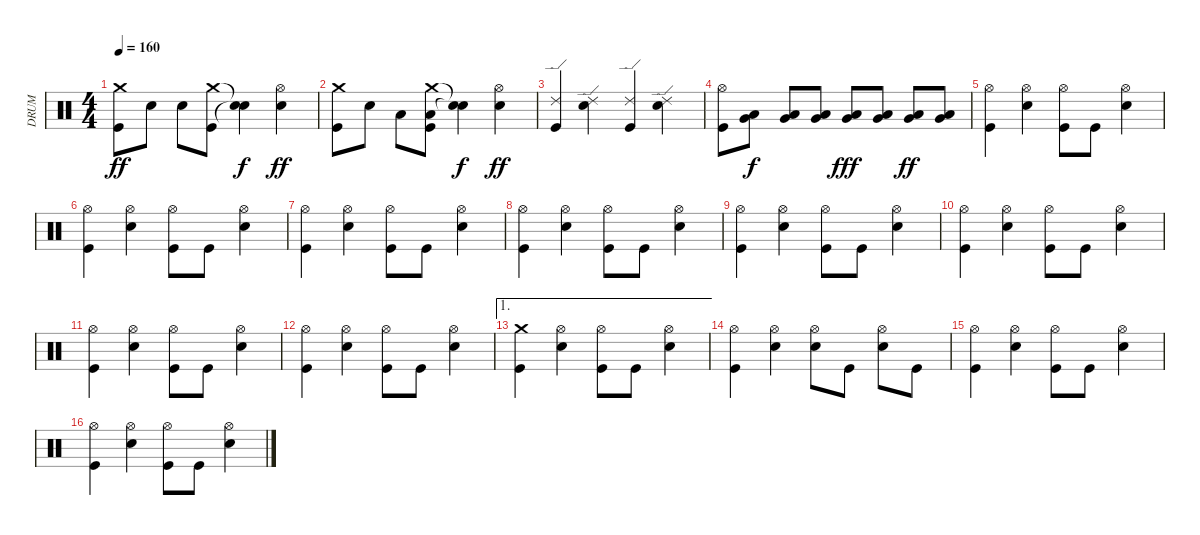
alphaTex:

\track ("DRUM" "DRUM") {instrument percussion}
\staff {score}
\articulation defaults
\ts (4 4)
\tempo 160
\clef neutral
\ks c
("Crash medium (hit)" "Kick (hit)").8{dy ff} "Snare (hit) 2".8 "Snare (hit) 2".8 ("Crash medium (hit)" "Kick (hit)").8 ("Snare (hit)"{t} "Snare (hit)"{t}).4{dy f} ("Hi-Hat (open)" "Snare (hit) 2").4{dy ff} |
("Crash medium (hit)" "Kick (hit)").8 "Snare (hit) 2".8 "Low Tom (hit)".8 ("Crash medium (hit)" "Low Tom (hit)" "Kick (hit)").8 ("Snare (hit)"{t} "Snare (hit)"{t}).4{dy f} ("Hi-Hat (open)" "Snare (hit) 2").4{dy ff} |
("Ride (edge) 2" "Kick (hit)").4 ("Ride (edge) 2" "Snare (hit) 2").4 ("Ride (edge) 2" "Kick (hit)").4 ("Ride (edge) 2" "Snare (hit) 2").4 |
("Hi-Hat (open)" "Kick (hit)").8 ("Very Low Tom (hit)" "Low Tom (hit)").8{dy f} ("Very Low Tom (hit)" "Low Tom (hit)").8 ("Very Low Tom (hit)" "Low Tom (hit)").8 ("Very Low Tom (hit)" "Low Tom (hit)").8{dy fff} ("Very Low Tom (hit)" "Low Tom (hit)").8 ("Very Low Tom (hit)" "Low Tom (hit)").8{dy ff} ("Very Low Tom (hit)" "Low Tom (hit)").8 |
("Hi-Hat (open)" "Kick (hit)").4 ("Hi-Hat (open)" "Snare (hit) 2").4 ("Hi-Hat (open)" "Kick (hit)").8 "Kick (hit)".8 ("Hi-Hat (open)" "Snare (hit) 2").4 |
("Hi-Hat (open)" "Kick (hit)").4 ("Hi-Hat (open)" "Snare (hit) 2").4 ("Hi-Hat (open)" "Kick (hit)").8 "Kick (hit)".8 ("Hi-Hat (open)" "Snare (hit) 2").4 |
("Hi-Hat (open)" "Kick (hit)").4 ("Hi-Hat (open)" "Snare (hit) 2").4 ("Hi-Hat (open)" "Kick (hit)").8 "Kick (hit)".8 ("Hi-Hat (open)" "Snare (hit) 2").4 |
("Hi-Hat (open)" "Kick (hit)").4 ("Hi-Hat (open)" "Snare (hit) 2").4 ("Hi-Hat (open)" "Kick (hit)").8 "Kick (hit)".8 ("Hi-Hat (open)" "Snare (hit) 2").4 |
("Hi-Hat (open)" "Kick (hit)").4 ("Hi-Hat (open)" "Snare (hit) 2").4 ("Hi-Hat (open)" "Kick (hit)").8 "Kick (hit)".8 ("Hi-Hat (open)" "Snare (hit) 2").4 |
("Hi-Hat (open)" "Kick (hit)").4 ("Hi-Hat (open)" "Snare (hit) 2").4 ("Hi-Hat (open)" "Kick (hit)").8 "Kick (hit)".8 ("Hi-Hat (open)" "Snare (hit) 2").4 |
("Hi-Hat (open)" "Kick (hit)").4 ("Hi-Hat (open)" "Snare (hit) 2").4 ("Hi-Hat (open)" "Kick (hit)").8 "Kick (hit)".8 ("Hi-Hat (open)" "Snare (hit) 2").4 |
("Hi-Hat (open)" "Kick (hit)").4 ("Hi-Hat (open)" "Snare (hit) 2").4 ("Hi-Hat (open)" "Kick (hit)").8 "Kick (hit)".8 ("Hi-Hat (open)" "Snare (hit) 2").4 |
\ae 1
("Crash medium (hit)" "Kick (hit)").4 ("Hi-Hat (open)" "Snare (hit) 2").4 ("Hi-Hat (open)" "Kick (hit)").8 "Kick (hit)".8 ("Hi-Hat (open)" "Snare (hit) 2").4 |
("Hi-Hat (open)" "Kick (hit)").4 ("Hi-Hat (open)" "Snare (hit) 2").4 ("Hi-Hat (open)" "Snare (hit) 2").8 "Kick (hit)".8 ("Hi-Hat (open)" "Snare (hit) 2").8 "Kick (hit)".8 |
("Hi-Hat (open)" "Kick (hit)").4 ("Hi-Hat (open)" "Snare (hit) 2").4 ("Hi-Hat (open)" "Kick (hit)").8 "Kick (hit)".8 ("Hi-Hat (open)" "Snare (hit) 2").4 |
("Hi-Hat (open)" "Kick (hit)").4 ("Hi-Hat (open)" "Snare (hit) 2").4 ("Hi-Hat (open)" "Kick (hit)").8 "Kick (hit)".8 ("Hi-Hat (open)" "Snare (hit) 2").4
